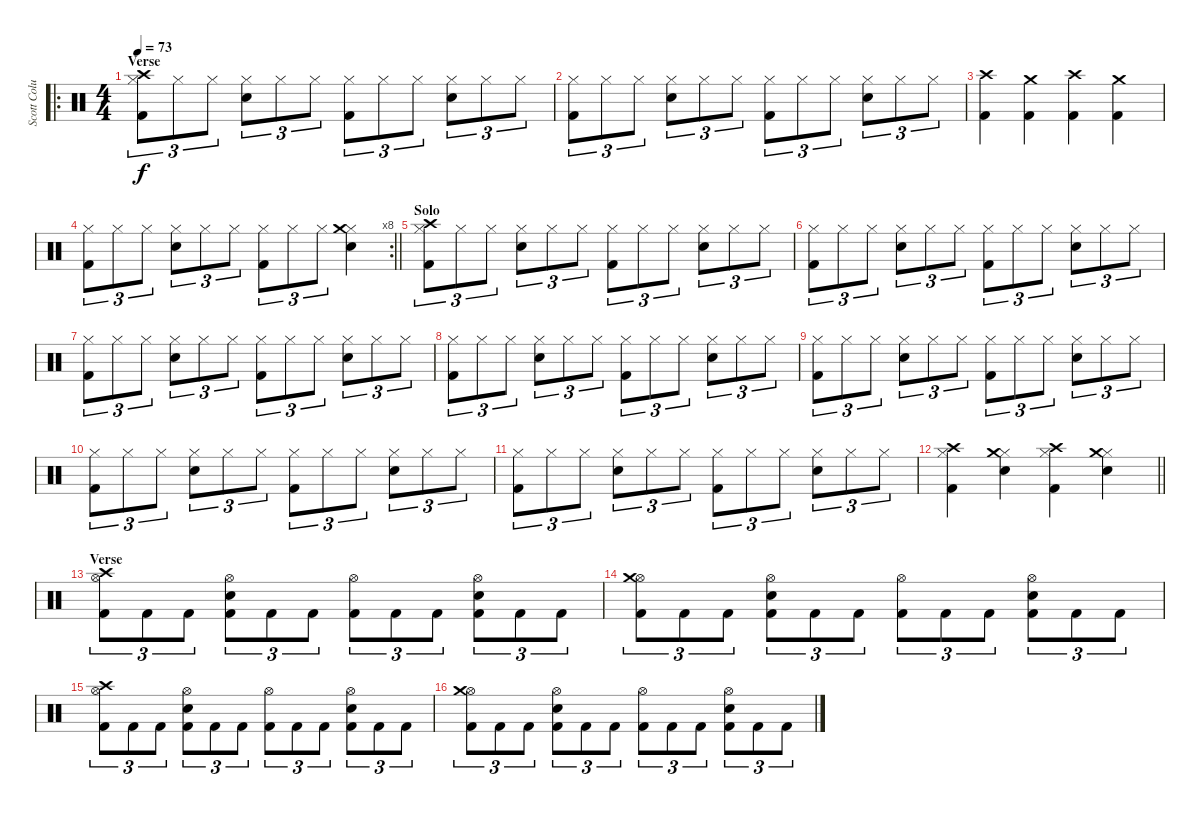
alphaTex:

\track ("Scott Columbus" "Scott Colu") {instrument percussion}
\staff {score}
\articulation defaults
\ro
\ts (4 4)
\section ("" "Verse")
\tempo 73
\clef neutral
\ks c
("Kick (hit) 2" "Hi-Hat (closed)" "Crash high (hit)").8{tu (3 2) dy f} "Hi-Hat (closed)".8{tu (3 2)} "Hi-Hat (closed)".8{tu (3 2)} ("Electric Snare (hit)" "Hi-Hat (closed)").8{tu (3 2)} "Hi-Hat (closed)".8{tu (3 2)} "Hi-Hat (closed)".8{tu (3 2)} ("Kick (hit) 2" "Hi-Hat (closed)").8{tu (3 2)} "Hi-Hat (closed)".8{tu (3 2)} "Hi-Hat (closed)".8{tu (3 2)} ("Electric Snare (hit)" "Hi-Hat (closed)").8{tu (3 2)} "Hi-Hat (closed)".8{tu (3 2)} "Hi-Hat (closed)".8{tu (3 2)} |
("Kick (hit) 2" "Hi-Hat (closed)").8{tu (3 2)} "Hi-Hat (closed)".8{tu (3 2)} "Hi-Hat (closed)".8{tu (3 2)} ("Electric Snare (hit)" "Hi-Hat (closed)").8{tu (3 2)} "Hi-Hat (closed)".8{tu (3 2)} "Hi-Hat (closed)".8{tu (3 2)} ("Kick (hit) 2" "Hi-Hat (closed)").8{tu (3 2)} "Hi-Hat (closed)".8{tu (3 2)} "Hi-Hat (closed)".8{tu (3 2)} ("Electric Snare (hit)" "Hi-Hat (closed)").8{tu (3 2)} "Hi-Hat (closed)".8{tu (3 2)} "Hi-Hat (closed)".8{tu (3 2)} |
("Kick (hit) 2" "Crash high (hit)").4 ("Kick (hit) 2" "Crash medium (hit)").4 ("Kick (hit) 2" "Crash high (hit)").4 ("Kick (hit) 2" "Crash medium (hit)").4 |
\rc 8
\barLineRight lightlight
("Kick (hit) 2" "Hi-Hat (closed)").8{tu (3 2)} "Hi-Hat (closed)".8{tu (3 2)} "Hi-Hat (closed)".8{tu (3 2)} ("Electric Snare (hit)" "Hi-Hat (closed)").8{tu (3 2)} "Hi-Hat (closed)".8{tu (3 2)} "Hi-Hat (closed)".8{tu (3 2)} ("Kick (hit) 2" "Hi-Hat (closed)").8{tu (3 2)} "Hi-Hat (closed)".8{tu (3 2)} "Hi-Hat (closed)".8{tu (3 2)} ("Electric Snare (hit)" "Hi-Hat (closed)" "Crash medium (hit)").4 |
\section ("" "Solo")
("Kick (hit) 2" "Hi-Hat (closed)" "Crash high (hit)").8{tu (3 2)} "Hi-Hat (closed)".8{tu (3 2)} "Hi-Hat (closed)".8{tu (3 2)} ("Electric Snare (hit)" "Hi-Hat (closed)").8{tu (3 2)} "Hi-Hat (closed)".8{tu (3 2)} "Hi-Hat (closed)".8{tu (3 2)} ("Kick (hit) 2" "Hi-Hat (closed)").8{tu (3 2)} "Hi-Hat (closed)".8{tu (3 2)} "Hi-Hat (closed)".8{tu (3 2)} ("Electric Snare (hit)" "Hi-Hat (closed)").8{tu (3 2)} "Hi-Hat (closed)".8{tu (3 2)} "Hi-Hat (closed)".8{tu (3 2)} |
("Kick (hit) 2" "Hi-Hat (closed)").8{tu (3 2)} "Hi-Hat (closed)".8{tu (3 2)} "Hi-Hat (closed)".8{tu (3 2)} ("Electric Snare (hit)" "Hi-Hat (closed)").8{tu (3 2)} "Hi-Hat (closed)".8{tu (3 2)} "Hi-Hat (closed)".8{tu (3 2)} ("Kick (hit) 2" "Hi-Hat (closed)").8{tu (3 2)} "Hi-Hat (closed)".8{tu (3 2)} "Hi-Hat (closed)".8{tu (3 2)} ("Electric Snare (hit)" "Hi-Hat (closed)").8{tu (3 2)} "Hi-Hat (closed)".8{tu (3 2)} "Hi-Hat (closed)".8{tu (3 2)} |
("Kick (hit) 2" "Hi-Hat (closed)").8{tu (3 2)} "Hi-Hat (closed)".8{tu (3 2)} "Hi-Hat (closed)".8{tu (3 2)} ("Electric Snare (hit)" "Hi-Hat (closed)").8{tu (3 2)} "Hi-Hat (closed)".8{tu (3 2)} "Hi-Hat (closed)".8{tu (3 2)} ("Kick (hit) 2" "Hi-Hat (closed)").8{tu (3 2)} "Hi-Hat (closed)".8{tu (3 2)} "Hi-Hat (closed)".8{tu (3 2)} ("Electric Snare (hit)" "Hi-Hat (closed)").8{tu (3 2)} "Hi-Hat (closed)".8{tu (3 2)} "Hi-Hat (closed)".8{tu (3 2)} |
("Kick (hit) 2" "Hi-Hat (closed)").8{tu (3 2)} "Hi-Hat (closed)".8{tu (3 2)} "Hi-Hat (closed)".8{tu (3 2)} ("Electric Snare (hit)" "Hi-Hat (closed)").8{tu (3 2)} "Hi-Hat (closed)".8{tu (3 2)} "Hi-Hat (closed)".8{tu (3 2)} ("Kick (hit) 2" "Hi-Hat (closed)").8{tu (3 2)} "Hi-Hat (closed)".8{tu (3 2)} "Hi-Hat (closed)".8{tu (3 2)} ("Electric Snare (hit)" "Hi-Hat (closed)").8{tu (3 2)} "Hi-Hat (closed)".8{tu (3 2)} "Hi-Hat (closed)".8{tu (3 2)} |
("Kick (hit) 2" "Hi-Hat (closed)").8{tu (3 2)} "Hi-Hat (closed)".8{tu (3 2)} "Hi-Hat (closed)".8{tu (3 2)} ("Electric Snare (hit)" "Hi-Hat (closed)").8{tu (3 2)} "Hi-Hat (closed)".8{tu (3 2)} "Hi-Hat (closed)".8{tu (3 2)} ("Kick (hit) 2" "Hi-Hat (closed)").8{tu (3 2)} "Hi-Hat (closed)".8{tu (3 2)} "Hi-Hat (closed)".8{tu (3 2)} ("Electric Snare (hit)" "Hi-Hat (closed)").8{tu (3 2)} "Hi-Hat (closed)".8{tu (3 2)} "Hi-Hat (closed)".8{tu (3 2)} |
("Kick (hit) 2" "Hi-Hat (closed)").8{tu (3 2)} "Hi-Hat (closed)".8{tu (3 2)} "Hi-Hat (closed)".8{tu (3 2)} ("Electric Snare (hit)" "Hi-Hat (closed)").8{tu (3 2)} "Hi-Hat (closed)".8{tu (3 2)} "Hi-Hat (closed)".8{tu (3 2)} ("Kick (hit) 2" "Hi-Hat (closed)").8{tu (3 2)} "Hi-Hat (closed)".8{tu (3 2)} "Hi-Hat (closed)".8{tu (3 2)} ("Electric Snare (hit)" "Hi-Hat (closed)").8{tu (3 2)} "Hi-Hat (closed)".8{tu (3 2)} "Hi-Hat (closed)".8{tu (3 2)} |
("Kick (hit) 2" "Hi-Hat (closed)").8{tu (3 2)} "Hi-Hat (closed)".8{tu (3 2)} "Hi-Hat (closed)".8{tu (3 2)} ("Electric Snare (hit)" "Hi-Hat (closed)").8{tu (3 2)} "Hi-Hat (closed)".8{tu (3 2)} "Hi-Hat (closed)".8{tu (3 2)} ("Kick (hit) 2" "Hi-Hat (closed)").8{tu (3 2)} "Hi-Hat (closed)".8{tu (3 2)} "Hi-Hat (closed)".8{tu (3 2)} ("Electric Snare (hit)" "Hi-Hat (closed)").8{tu (3 2)} "Hi-Hat (closed)".8{tu (3 2)} "Hi-Hat (closed)".8{tu (3 2)} |
\barLineRight lightlight
("Kick (hit) 2" "Hi-Hat (closed)" "Crash high (hit)").4 ("Electric Snare (hit)" "Hi-Hat (closed)" "Crash medium (hit)").4 ("Kick (hit) 2" "Hi-Hat (closed)" "Crash high (hit)").4 ("Electric Snare (hit)" "Hi-Hat (closed)" "Crash medium (hit)").4 |
\section ("" "Verse")
("Kick (hit) 2" "Hi-Hat (open)" "Crash high (hit)").8{tu (3 2)} "Kick (hit) 2".8{tu (3 2)} "Kick (hit) 2".8{tu (3 2)} ("Kick (hit) 2" "Electric Snare (hit)" "Hi-Hat (open)").8{tu (3 2)} "Kick (hit) 2".8{tu (3 2)} "Kick (hit) 2".8{tu (3 2)} ("Kick (hit) 2" "Hi-Hat (open)").8{tu (3 2)} "Kick (hit) 2".8{tu (3 2)} "Kick (hit) 2".8{tu (3 2)} ("Kick (hit) 2" "Electric Snare (hit)" "Hi-Hat (open)").8{tu (3 2)} "Kick (hit) 2".8{tu (3 2)} "Kick (hit) 2".8{tu (3 2)} |
("Kick (hit) 2" "Hi-Hat (open)" "Crash medium (hit)").8{tu (3 2)} "Kick (hit) 2".8{tu (3 2)} "Kick (hit) 2".8{tu (3 2)} ("Kick (hit) 2" "Electric Snare (hit)" "Hi-Hat (open)").8{tu (3 2)} "Kick (hit) 2".8{tu (3 2)} "Kick (hit) 2".8{tu (3 2)} ("Kick (hit) 2" "Hi-Hat (open)").8{tu (3 2)} "Kick (hit) 2".8{tu (3 2)} "Kick (hit) 2".8{tu (3 2)} ("Kick (hit) 2" "Electric Snare (hit)" "Hi-Hat (open)").8{tu (3 2)} "Kick (hit) 2".8{tu (3 2)} "Kick (hit) 2".8{tu (3 2)} |
("Kick (hit) 2" "Hi-Hat (open)" "Crash high (hit)").8{tu (3 2)} "Kick (hit) 2".8{tu (3 2)} "Kick (hit) 2".8{tu (3 2)} ("Kick (hit) 2" "Electric Snare (hit)" "Hi-Hat (open)").8{tu (3 2)} "Kick (hit) 2".8{tu (3 2)} "Kick (hit) 2".8{tu (3 2)} ("Kick (hit) 2" "Hi-Hat (open)").8{tu (3 2)} "Kick (hit) 2".8{tu (3 2)} "Kick (hit) 2".8{tu (3 2)} ("Kick (hit) 2" "Electric Snare (hit)" "Hi-Hat (open)").8{tu (3 2)} "Kick (hit) 2".8{tu (3 2)} "Kick (hit) 2".8{tu (3 2)} |
("Kick (hit) 2" "Hi-Hat (open)" "Crash medium (hit)").8{tu (3 2)} "Kick (hit) 2".8{tu (3 2)} "Kick (hit) 2".8{tu (3 2)} ("Kick (hit) 2" "Electric Snare (hit)" "Hi-Hat (open)").8{tu (3 2)} "Kick (hit) 2".8{tu (3 2)} "Kick (hit) 2".8{tu (3 2)} ("Kick (hit) 2" "Hi-Hat (open)").8{tu (3 2)} "Kick (hit) 2".8{tu (3 2)} "Kick (hit) 2".8{tu (3 2)} ("Kick (hit) 2" "Electric Snare (hit)" "Hi-Hat (open)").8{tu (3 2)} "Kick (hit) 2".8{tu (3 2)} "Kick (hit) 2".8{tu (3 2)}
